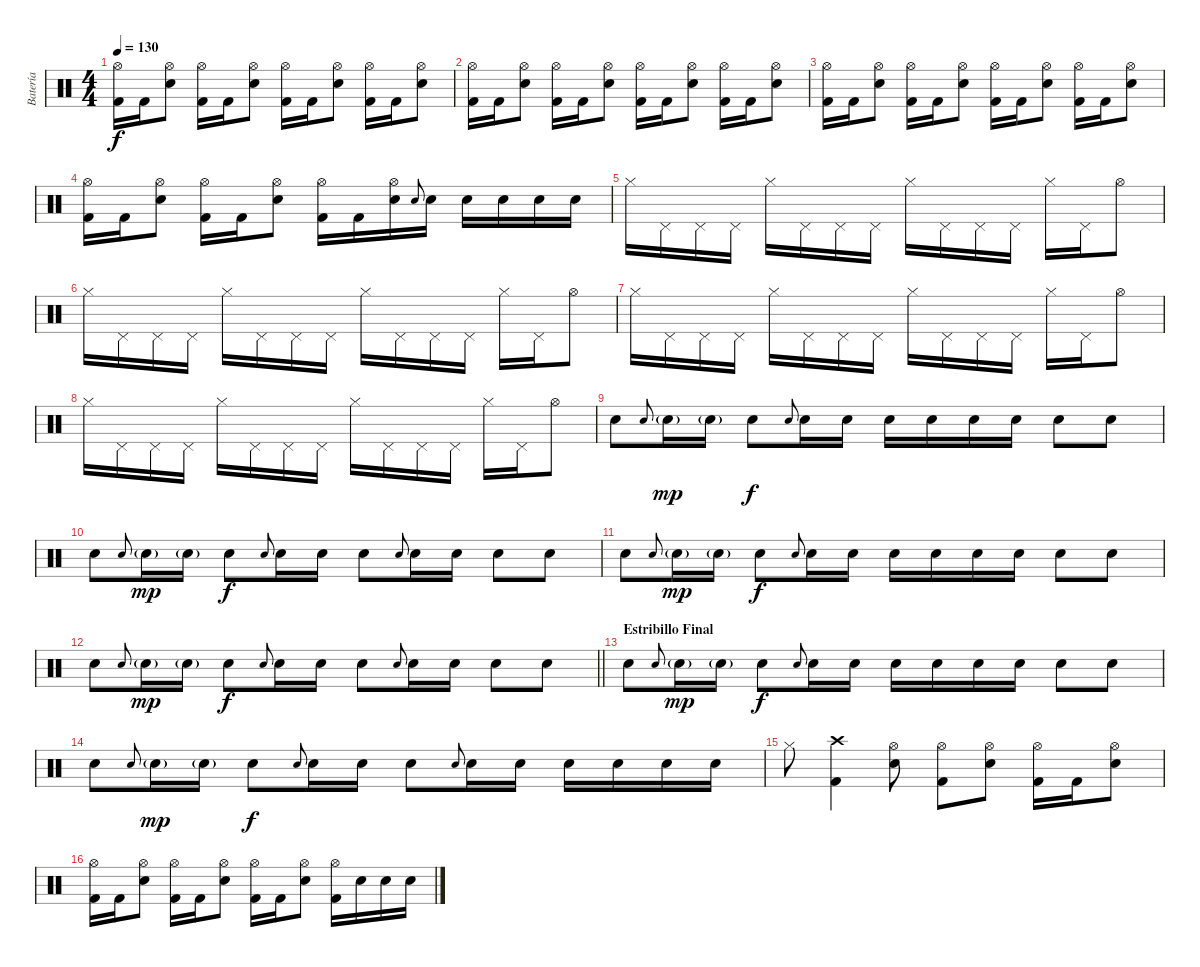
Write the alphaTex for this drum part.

\track ("Batería" "Batería") {instrument percussion}
\staff {score}
\articulation defaults
\ts (4 4)
\tempo 130
\clef neutral
\ks c
("Hi-Hat (open)" "Kick (hit) 2").16{dy f} "Kick (hit) 2".16 ("Hi-Hat (open)" "Snare (hit) 2").8 ("Hi-Hat (open)" "Kick (hit) 2").16 "Kick (hit) 2".16 ("Hi-Hat (open)" "Snare (hit) 2").8 ("Hi-Hat (open)" "Kick (hit) 2").16 "Kick (hit) 2".16 ("Hi-Hat (open)" "Snare (hit) 2").8 ("Hi-Hat (open)" "Kick (hit) 2").16 "Kick (hit) 2".16 ("Hi-Hat (open)" "Snare (hit) 2").8 |
("Hi-Hat (open)" "Kick (hit) 2").16 "Kick (hit) 2".16 ("Hi-Hat (open)" "Snare (hit) 2").8 ("Hi-Hat (open)" "Kick (hit) 2").16 "Kick (hit) 2".16 ("Hi-Hat (open)" "Snare (hit) 2").8 ("Hi-Hat (open)" "Kick (hit) 2").16 "Kick (hit) 2".16 ("Hi-Hat (open)" "Snare (hit) 2").8 ("Hi-Hat (open)" "Kick (hit) 2").16 "Kick (hit) 2".16 ("Hi-Hat (open)" "Snare (hit) 2").8 |
("Hi-Hat (open)" "Kick (hit) 2").16 "Kick (hit) 2".16 ("Hi-Hat (open)" "Snare (hit) 2").8 ("Hi-Hat (open)" "Kick (hit) 2").16 "Kick (hit) 2".16 ("Hi-Hat (open)" "Snare (hit) 2").8 ("Hi-Hat (open)" "Kick (hit) 2").16 "Kick (hit) 2".16 ("Hi-Hat (open)" "Snare (hit) 2").8 ("Hi-Hat (open)" "Kick (hit) 2").16 "Kick (hit) 2".16 ("Hi-Hat (open)" "Snare (hit) 2").8 |
("Hi-Hat (open)" "Kick (hit) 2").16 "Kick (hit) 2".16 ("Hi-Hat (open)" "Snare (hit) 2").8 ("Hi-Hat (open)" "Kick (hit) 2").16 "Kick (hit) 2".16 ("Hi-Hat (open)" "Snare (hit) 2").8 ("Hi-Hat (open)" "Kick (hit) 2").16 "Kick (hit) 2".16 ("Hi-Hat (open)" "Snare (hit) 2").16 "Snare (hit) 2".8{gr onbeat} "Snare (hit) 2".16 "Snare (hit) 2".16 "Snare (hit) 2".16 "Snare (hit) 2".16 "Snare (hit) 2".16 |
"Hi-Hat (closed)".16 "Pedal Hi-Hat (hit)".16 "Pedal Hi-Hat (hit)".16 "Pedal Hi-Hat (hit)".16 "Hi-Hat (closed)".16 "Pedal Hi-Hat (hit)".16 "Pedal Hi-Hat (hit)".16 "Pedal Hi-Hat (hit)".16 "Hi-Hat (closed)".16 "Pedal Hi-Hat (hit)".16 "Pedal Hi-Hat (hit)".16 "Pedal Hi-Hat (hit)".16 "Hi-Hat (closed)".16 "Pedal Hi-Hat (hit)".16 "Hi-Hat (open)".8 |
"Hi-Hat (closed)".16 "Pedal Hi-Hat (hit)".16 "Pedal Hi-Hat (hit)".16 "Pedal Hi-Hat (hit)".16 "Hi-Hat (closed)".16 "Pedal Hi-Hat (hit)".16 "Pedal Hi-Hat (hit)".16 "Pedal Hi-Hat (hit)".16 "Hi-Hat (closed)".16 "Pedal Hi-Hat (hit)".16 "Pedal Hi-Hat (hit)".16 "Pedal Hi-Hat (hit)".16 "Hi-Hat (closed)".16 "Pedal Hi-Hat (hit)".16 "Hi-Hat (open)".8 |
"Hi-Hat (closed)".16 "Pedal Hi-Hat (hit)".16 "Pedal Hi-Hat (hit)".16 "Pedal Hi-Hat (hit)".16 "Hi-Hat (closed)".16 "Pedal Hi-Hat (hit)".16 "Pedal Hi-Hat (hit)".16 "Pedal Hi-Hat (hit)".16 "Hi-Hat (closed)".16 "Pedal Hi-Hat (hit)".16 "Pedal Hi-Hat (hit)".16 "Pedal Hi-Hat (hit)".16 "Hi-Hat (closed)".16 "Pedal Hi-Hat (hit)".16 "Hi-Hat (open)".8 |
"Hi-Hat (closed)".16 "Pedal Hi-Hat (hit)".16 "Pedal Hi-Hat (hit)".16 "Pedal Hi-Hat (hit)".16 "Hi-Hat (closed)".16 "Pedal Hi-Hat (hit)".16 "Pedal Hi-Hat (hit)".16 "Pedal Hi-Hat (hit)".16 "Hi-Hat (closed)".16 "Pedal Hi-Hat (hit)".16 "Pedal Hi-Hat (hit)".16 "Pedal Hi-Hat (hit)".16 "Hi-Hat (closed)".16 "Pedal Hi-Hat (hit)".16 "Hi-Hat (open)".8 |
"Snare (hit) 2".8 "Snare (hit) 2".8{gr onbeat} "Snare (hit) 2"{g}.16{dy mp} "Snare (hit) 2"{g}.16 "Snare (hit) 2".8{dy f} "Snare (hit) 2".8{gr onbeat} "Snare (hit) 2".16 "Snare (hit) 2".16 "Snare (hit) 2".16 "Snare (hit) 2".16 "Snare (hit) 2".16 "Snare (hit) 2".16 "Snare (hit) 2".8 "Snare (hit) 2".8 |
"Snare (hit) 2".8 "Snare (hit) 2".8{gr onbeat} "Snare (hit) 2"{g}.16{dy mp} "Snare (hit) 2"{g}.16 "Snare (hit) 2".8{dy f} "Snare (hit) 2".8{gr onbeat} "Snare (hit) 2".16 "Snare (hit) 2".16 "Snare (hit) 2".8 "Snare (hit) 2".8{gr onbeat} "Snare (hit) 2".16 "Snare (hit) 2".16 "Snare (hit) 2".8 "Snare (hit) 2".8 |
"Snare (hit) 2".8 "Snare (hit) 2".8{gr onbeat} "Snare (hit) 2"{g}.16{dy mp} "Snare (hit) 2"{g}.16 "Snare (hit) 2".8{dy f} "Snare (hit) 2".8{gr onbeat} "Snare (hit) 2".16 "Snare (hit) 2".16 "Snare (hit) 2".16 "Snare (hit) 2".16 "Snare (hit) 2".16 "Snare (hit) 2".16 "Snare (hit) 2".8 "Snare (hit) 2".8 |
\barLineRight lightlight "Snare (hit) 2".8 "Snare (hit) 2".8{gr onbeat} "Snare (hit) 2"{g}.16{dy mp} "Snare (hit) 2"{g}.16 "Snare (hit) 2".8{dy f} "Snare (hit) 2".8{gr onbeat} "Snare (hit) 2".16 "Snare (hit) 2".16 "Snare (hit) 2".8 "Snare (hit) 2".8{gr onbeat} "Snare (hit) 2".16 "Snare (hit) 2".16 "Snare (hit) 2".8 "Snare (hit) 2".8
|
\section ("" "Estribillo Final")
"Snare (hit) 2".8 "Snare (hit) 2".8{gr onbeat} "Snare (hit) 2"{g}.16{dy mp} "Snare (hit) 2"{g}.16 "Snare (hit) 2".8{dy f} "Snare (hit) 2".8{gr onbeat} "Snare (hit) 2".16 "Snare (hit) 2".16 "Snare (hit) 2".16 "Snare (hit) 2".16 "Snare (hit) 2".16 "Snare (hit) 2".16 "Snare (hit) 2".8 "Snare (hit) 2".8 |
"Snare (hit) 2".8 "Snare (hit) 2".8{gr onbeat} "Snare (hit) 2"{g}.16{dy mp} "Snare (hit) 2"{g}.16 "Snare (hit) 2".8{dy f} "Snare (hit) 2".8{gr onbeat} "Snare (hit) 2".16 "Snare (hit) 2".16 "Snare (hit) 2".8 "Snare (hit) 2".8{gr onbeat} "Snare (hit) 2".16 "Snare (hit) 2".16 "Snare (hit) 2".16 "Snare (hit) 2".16 "Snare (hit) 2".16 "Snare (hit) 2".16 |
"Hi-Hat (closed)".8 ("Crash high (hit)" "Kick (hit) 2").4 ("Hi-Hat (open)" "Snare (hit) 2").8 ("Hi-Hat (open)" "Kick (hit) 2").8 ("Hi-Hat (open)" "Snare (hit) 2").8 ("Hi-Hat (open)" "Kick (hit) 2").16 "Kick (hit) 2".16 ("Hi-Hat (open)" "Snare (hit) 2").8 |
("Hi-Hat (open)" "Kick (hit) 2").16 "Kick (hit) 2".16 ("Hi-Hat (open)" "Snare (hit) 2").8 ("Hi-Hat (open)" "Kick (hit) 2").16 "Kick (hit) 2".16 ("Hi-Hat (open)" "Snare (hit) 2").8 ("Hi-Hat (open)" "Kick (hit) 2").16 "Kick (hit) 2".16 ("Hi-Hat (open)" "Snare (hit) 2").8 ("Hi-Hat (open)" "Kick (hit) 2").16 "Snare (hit) 2".16 "Snare (hit) 2".16 "Snare (hit) 2".16
